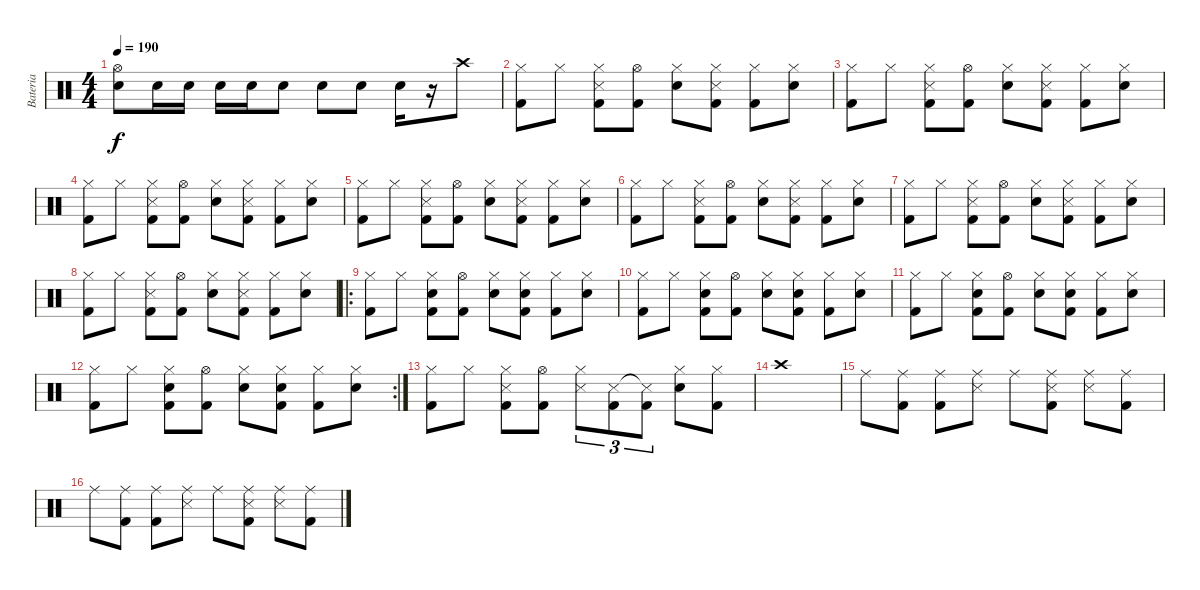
\track ("Bateria" "Bateria") {instrument percussion}
\staff {score}
\articulation defaults
\ts (4 4)
\tempo 190
\clef neutral
\ks c
("Hi-Hat (open)" "Electric Snare (hit)").8{dy f volume 9} "Electric Snare (hit)".16 "Electric Snare (hit)".16 "Electric Snare (hit)".16 "Electric Snare (hit)".16 "Electric Snare (hit)".8 "Electric Snare (hit)".8 "Electric Snare (hit)".8 "Electric Snare (hit)".16 r.16 "Crash high (hit)".8 |
("Hi-Hat (closed)" "Kick (hit) 2").8 "Hi-Hat (closed)".8 ("Hi-Hat (closed)" "Snare (side stick) 3" "Kick (hit) 2").8 ("Hi-Hat (open)" "Kick (hit) 2").8 ("Hi-Hat (closed)" "Electric Snare (hit)").8 ("Hi-Hat (closed)" "Snare (side stick) 3" "Kick (hit) 2").8 ("Hi-Hat (closed)" "Kick (hit) 2").8 ("Hi-Hat (closed)" "Electric Snare (hit)").8 |
("Hi-Hat (closed)" "Kick (hit) 2").8 "Hi-Hat (closed)".8 ("Hi-Hat (closed)" "Snare (side stick) 3" "Kick (hit) 2").8 ("Hi-Hat (open)" "Kick (hit) 2").8 ("Hi-Hat (closed)" "Electric Snare (hit)").8 ("Hi-Hat (closed)" "Snare (side stick) 3" "Kick (hit) 2").8 ("Hi-Hat (closed)" "Kick (hit) 2").8 ("Hi-Hat (closed)" "Electric Snare (hit)").8 |
("Hi-Hat (closed)" "Kick (hit) 2").8 "Hi-Hat (closed)".8 ("Hi-Hat (closed)" "Snare (side stick) 3" "Kick (hit) 2").8 ("Hi-Hat (open)" "Kick (hit) 2").8 ("Hi-Hat (closed)" "Electric Snare (hit)").8 ("Hi-Hat (closed)" "Snare (side stick) 3" "Kick (hit) 2").8 ("Hi-Hat (closed)" "Kick (hit) 2").8 ("Hi-Hat (closed)" "Electric Snare (hit)").8 |
("Hi-Hat (closed)" "Kick (hit) 2").8 "Hi-Hat (closed)".8 ("Hi-Hat (closed)" "Snare (side stick) 3" "Kick (hit) 2").8 ("Hi-Hat (open)" "Kick (hit) 2").8 ("Hi-Hat (closed)" "Electric Snare (hit)").8 ("Hi-Hat (closed)" "Snare (side stick) 3" "Kick (hit) 2").8 ("Hi-Hat (closed)" "Kick (hit) 2").8 ("Hi-Hat (closed)" "Electric Snare (hit)").8 |
("Hi-Hat (closed)" "Kick (hit) 2").8 "Hi-Hat (closed)".8 ("Hi-Hat (closed)" "Snare (side stick) 3" "Kick (hit) 2").8 ("Hi-Hat (open)" "Kick (hit) 2").8 ("Hi-Hat (closed)" "Electric Snare (hit)").8 ("Hi-Hat (closed)" "Snare (side stick) 3" "Kick (hit) 2").8 ("Hi-Hat (closed)" "Kick (hit) 2").8 ("Hi-Hat (closed)" "Electric Snare (hit)").8 |
("Hi-Hat (closed)" "Kick (hit) 2").8 "Hi-Hat (closed)".8 ("Hi-Hat (closed)" "Snare (side stick) 3" "Kick (hit) 2").8 ("Hi-Hat (open)" "Kick (hit) 2").8 ("Hi-Hat (closed)" "Electric Snare (hit)").8 ("Hi-Hat (closed)" "Snare (side stick) 3" "Kick (hit) 2").8 ("Hi-Hat (closed)" "Kick (hit) 2").8 ("Hi-Hat (closed)" "Electric Snare (hit)").8 |
("Hi-Hat (closed)" "Kick (hit) 2").8 "Hi-Hat (closed)".8 ("Hi-Hat (closed)" "Snare (side stick) 3" "Kick (hit) 2").8 ("Hi-Hat (open)" "Kick (hit) 2").8 ("Hi-Hat (closed)" "Electric Snare (hit)").8 ("Hi-Hat (closed)" "Snare (side stick) 3" "Kick (hit) 2").8 ("Hi-Hat (closed)" "Kick (hit) 2").8 ("Hi-Hat (closed)" "Electric Snare (hit)").8 |
\ro
("Hi-Hat (closed)" "Kick (hit) 2").8 "Hi-Hat (closed)".8 ("Hi-Hat (closed)" "Electric Snare (hit)" "Kick (hit) 2").8 ("Hi-Hat (open)" "Kick (hit) 2").8 ("Hi-Hat (closed)" "Electric Snare (hit)").8 ("Hi-Hat (closed)" "Electric Snare (hit)" "Kick (hit) 2").8 ("Hi-Hat (closed)" "Kick (hit) 2").8 ("Hi-Hat (closed)" "Electric Snare (hit)").8 |
("Hi-Hat (closed)" "Kick (hit) 2").8 "Hi-Hat (closed)".8 ("Hi-Hat (closed)" "Electric Snare (hit)" "Kick (hit) 2").8 ("Hi-Hat (open)" "Kick (hit) 2").8 ("Hi-Hat (closed)" "Electric Snare (hit)").8 ("Hi-Hat (closed)" "Electric Snare (hit)" "Kick (hit) 2").8 ("Hi-Hat (closed)" "Kick (hit) 2").8 ("Hi-Hat (closed)" "Electric Snare (hit)").8 |
("Hi-Hat (closed)" "Kick (hit) 2").8 "Hi-Hat (closed)".8 ("Hi-Hat (closed)" "Electric Snare (hit)" "Kick (hit) 2").8 ("Hi-Hat (open)" "Kick (hit) 2").8 ("Hi-Hat (closed)" "Electric Snare (hit)").8 ("Hi-Hat (closed)" "Electric Snare (hit)" "Kick (hit) 2").8 ("Hi-Hat (closed)" "Kick (hit) 2").8 ("Hi-Hat (closed)" "Electric Snare (hit)").8 |
\rc 2
("Hi-Hat (closed)" "Kick (hit) 2").8 "Hi-Hat (closed)".8 ("Hi-Hat (closed)" "Electric Snare (hit)" "Kick (hit) 2").8 ("Hi-Hat (open)" "Kick (hit) 2").8 ("Hi-Hat (closed)" "Electric Snare (hit)").8 ("Hi-Hat (closed)" "Electric Snare (hit)" "Kick (hit) 2").8 ("Hi-Hat (closed)" "Kick (hit) 2").8 ("Hi-Hat (closed)" "Electric Snare (hit)").8 |
("Hi-Hat (closed)" "Kick (hit) 2").8 "Hi-Hat (closed)".8 ("Hi-Hat (closed)" "Snare (side stick) 3" "Kick (hit) 2").8 ("Hi-Hat (open)" "Kick (hit) 2").8 ("Hi-Hat (closed)" "Snare (side stick) 3").8{tu (3 2)} ("Snare (side stick) 3" "Kick (hit) 2").8{tu (3 2)} ("Snare (side stick) 3"{t} "Kick (hit) 2").8{tu (3 2)} ("Hi-Hat (closed)" "Electric Snare (hit)").8 ("Hi-Hat (closed)" "Kick (hit) 2").8 |
"Crash high (hit)".1 |
"Ride (middle)".8 ("Ride (middle)" "Kick (hit) 2").8 ("Ride (middle)" "Kick (hit) 2").8 ("Ride (middle)" "Snare (side stick) 3").8 "Ride (middle)".8 ("Ride (middle)" "Snare (side stick) 3" "Kick (hit) 2").8 ("Ride (middle)" "Snare (side stick) 3").8 ("Ride (middle)" "Kick (hit) 2").8 |
"Ride (middle)".8 ("Ride (middle)" "Kick (hit) 2").8 ("Ride (middle)" "Kick (hit) 2").8 ("Ride (middle)" "Snare (side stick) 3").8 "Ride (middle)".8 ("Ride (middle)" "Snare (side stick) 3" "Kick (hit) 2").8 ("Ride (middle)" "Snare (side stick) 3").8 ("Ride (middle)" "Kick (hit) 2").8
